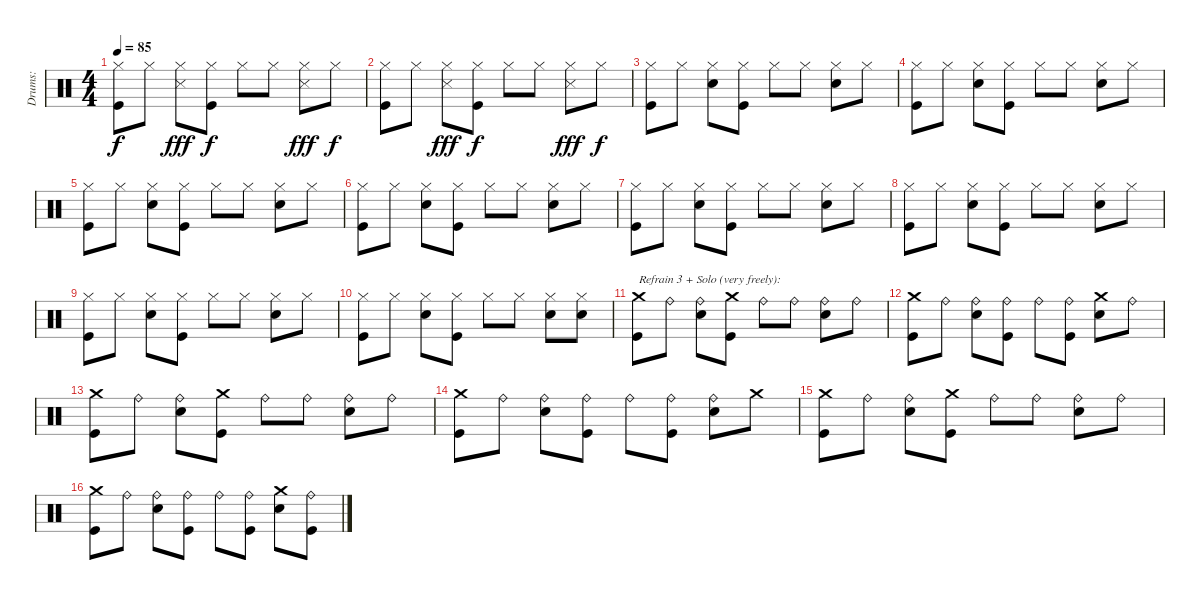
\track ("Drums:" "Drums:") {instrument percussion}
\staff {score}
\articulation defaults
\ts (4 4)
\tempo 85
\clef neutral
\ks c
("Hi-Hat (closed)" "Kick (hit)").8{dy f} "Hi-Hat (closed)".8 ("Hi-Hat (closed)" "Snare (side stick) 3").8{dy fff} ("Hi-Hat (closed)" "Kick (hit)").8{dy f} "Hi-Hat (closed)".8 "Hi-Hat (closed)".8 ("Hi-Hat (closed)" "Snare (side stick) 3").8{dy fff} "Hi-Hat (closed)".8{dy f} |
("Hi-Hat (closed)" "Kick (hit)").8 "Hi-Hat (closed)".8 ("Hi-Hat (closed)" "Snare (side stick) 3").8{dy fff} ("Hi-Hat (closed)" "Kick (hit)").8{dy f} "Hi-Hat (closed)".8 "Hi-Hat (closed)".8 ("Hi-Hat (closed)" "Snare (side stick) 3").8{dy fff} "Hi-Hat (closed)".8{dy f} |
("Hi-Hat (closed)" "Kick (hit)").8 "Hi-Hat (closed)".8 ("Hi-Hat (closed)" "Snare (hit) 2").8 ("Hi-Hat (closed)" "Kick (hit)").8 "Hi-Hat (closed)".8 "Hi-Hat (closed)".8 ("Hi-Hat (closed)" "Snare (hit) 2").8 "Hi-Hat (closed)".8 |
("Hi-Hat (closed)" "Kick (hit)").8 "Hi-Hat (closed)".8 ("Hi-Hat (closed)" "Snare (hit) 2").8 ("Hi-Hat (closed)" "Kick (hit)").8 "Hi-Hat (closed)".8 "Hi-Hat (closed)".8 ("Hi-Hat (closed)" "Snare (hit) 2").8 "Hi-Hat (closed)".8 |
("Hi-Hat (closed)" "Kick (hit)").8 "Hi-Hat (closed)".8 ("Hi-Hat (closed)" "Snare (hit) 2").8 ("Hi-Hat (closed)" "Kick (hit)").8 "Hi-Hat (closed)".8 "Hi-Hat (closed)".8 ("Hi-Hat (closed)" "Snare (hit) 2").8 "Hi-Hat (closed)".8 |
("Hi-Hat (closed)" "Kick (hit)").8 "Hi-Hat (closed)".8 ("Hi-Hat (closed)" "Snare (hit) 2").8 ("Hi-Hat (closed)" "Kick (hit)").8 "Hi-Hat (closed)".8 "Hi-Hat (closed)".8 ("Hi-Hat (closed)" "Snare (hit) 2").8 "Hi-Hat (closed)".8 |
("Hi-Hat (closed)" "Kick (hit)").8 "Hi-Hat (closed)".8 ("Hi-Hat (closed)" "Snare (hit) 2").8 ("Hi-Hat (closed)" "Kick (hit)").8 "Hi-Hat (closed)".8 "Hi-Hat (closed)".8 ("Hi-Hat (closed)" "Snare (hit) 2").8 "Hi-Hat (closed)".8 |
("Hi-Hat (closed)" "Kick (hit)").8 "Hi-Hat (closed)".8 ("Hi-Hat (closed)" "Snare (hit) 2").8 ("Hi-Hat (closed)" "Kick (hit)").8 "Hi-Hat (closed)".8 "Hi-Hat (closed)".8 ("Hi-Hat (closed)" "Snare (hit) 2").8 "Hi-Hat (closed)".8 |
("Hi-Hat (closed)" "Kick (hit)").8 "Hi-Hat (closed)".8 ("Hi-Hat (closed)" "Snare (hit) 2").8 ("Hi-Hat (closed)" "Kick (hit)").8 "Hi-Hat (closed)".8 "Hi-Hat (closed)".8 ("Hi-Hat (closed)" "Snare (hit) 2").8 "Hi-Hat (closed)".8 |
("Hi-Hat (closed)" "Kick (hit)").8 "Hi-Hat (closed)".8 ("Hi-Hat (closed)" "Snare (hit) 2").8 ("Hi-Hat (closed)" "Kick (hit)").8 "Hi-Hat (closed)".8 "Hi-Hat (closed)".8 ("Hi-Hat (closed)" "Snare (hit) 2").8 ("Hi-Hat (closed)" "Snare (hit) 2").8 |
("Crash medium (hit)" "Kick (hit)").8{txt "Refrain 3 + Solo (very freely):"} "Ride (bell)".8 ("Ride (bell)" "Snare (hit) 2").8 ("Crash medium (hit)" "Kick (hit)").8 "Ride (bell)".8 "Ride (bell)".8 ("Ride (bell)" "Snare (hit) 2").8 "Ride (bell)".8 |
("Crash medium (hit)" "Kick (hit)").8 "Ride (bell)".8 ("Ride (bell)" "Snare (hit) 2").8 ("Ride (bell)" "Kick (hit)").8 "Ride (bell)".8 ("Ride (bell)" "Kick (hit)").8 ("Crash medium (hit)" "Snare (hit) 2").8 "Ride (bell)".8 |
("Crash medium (hit)" "Kick (hit)").8 "Ride (bell)".8 ("Ride (bell)" "Snare (hit) 2").8 ("Crash medium (hit)" "Kick (hit)").8 "Ride (bell)".8 "Ride (bell)".8 ("Ride (bell)" "Snare (hit) 2").8 "Ride (bell)".8 |
("Crash medium (hit)" "Kick (hit)").8 "Ride (bell)".8 ("Ride (bell)" "Snare (hit) 2").8 ("Ride (bell)" "Kick (hit)").8 "Ride (bell)".8 ("Ride (bell)" "Kick (hit)").8 ("Ride (bell)" "Snare (hit) 2").8 "Crash medium (hit)".8 |
("Crash medium (hit)" "Kick (hit)").8 "Ride (bell)".8 ("Ride (bell)" "Snare (hit) 2").8 ("Crash medium (hit)" "Kick (hit)").8 "Ride (bell)".8 "Ride (bell)".8 ("Ride (bell)" "Snare (hit) 2").8 "Ride (bell)".8 |
("Crash medium (hit)" "Kick (hit)").8 "Ride (bell)".8 ("Ride (bell)" "Snare (hit) 2").8 ("Ride (bell)" "Kick (hit)").8 "Ride (bell)".8 ("Ride (bell)" "Kick (hit)").8 ("Crash medium (hit)" "Snare (hit) 2").8 ("Ride (bell)" "Kick (hit)").8
